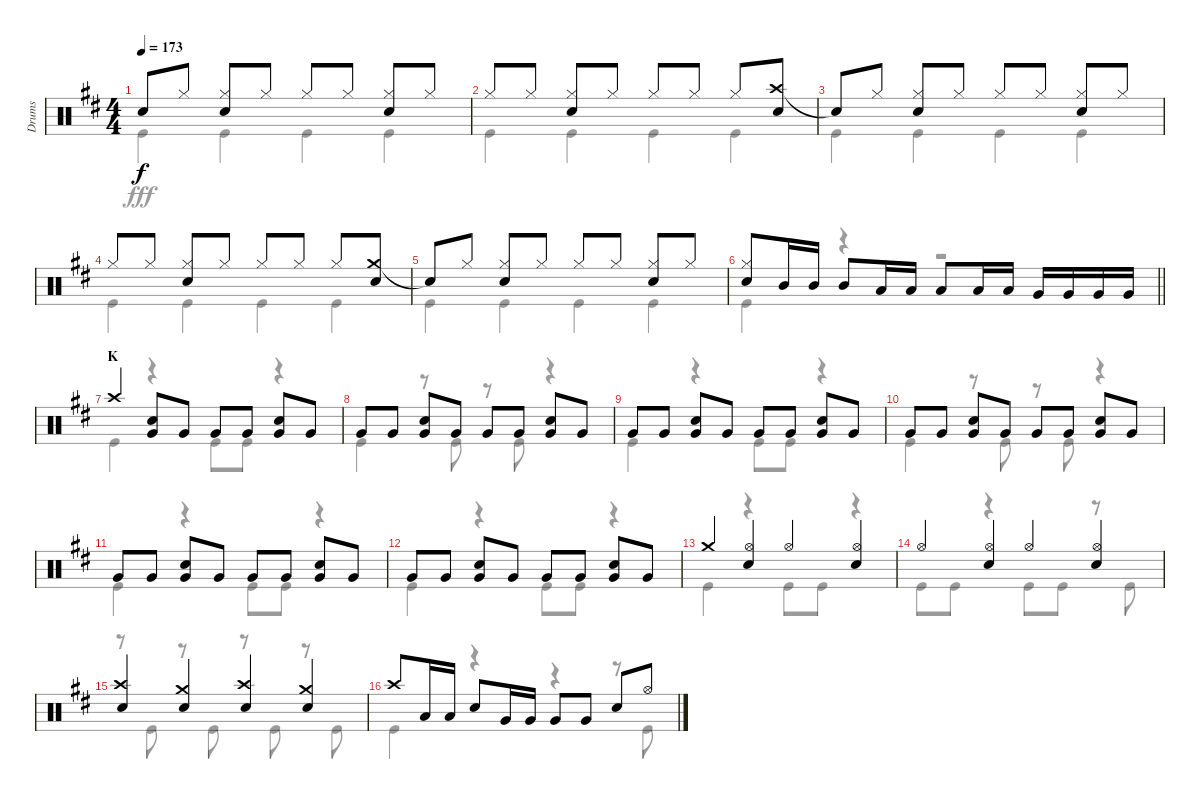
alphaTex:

\track ("Drums" "Drums") {instrument percussion}
\staff {score}
\articulation defaults
\voice
\ts (4 4)
\tempo 173
\clef neutral
\ks d "Snare (hit)"{t}.8{dy f} "Hi-Hat (closed)".8
("Hi-Hat (closed)" "Snare (hit) 2").8 "Hi-Hat (closed)".8 "Hi-Hat (closed)".8 "Hi-Hat (closed)".8 ("Hi-Hat (closed)" "Snare (hit) 2").8 "Hi-Hat (closed)".8 |
"Hi-Hat (closed)".8 "Hi-Hat (closed)".8 ("Hi-Hat (closed)" "Snare (hit) 2").8 "Hi-Hat (closed)".8 "Hi-Hat (closed)".8 "Hi-Hat (closed)".8 "Hi-Hat (closed)".8 ("Crash high (hit)" "Snare (hit) 2").8 |
"Snare (hit)"{t}.8 "Hi-Hat (closed)".8 ("Hi-Hat (closed)" "Snare (hit) 2").8 "Hi-Hat (closed)".8 "Hi-Hat (closed)".8 "Hi-Hat (closed)".8 ("Hi-Hat (closed)" "Snare (hit) 2").8 "Hi-Hat (closed)".8 |
"Hi-Hat (closed)".8 "Hi-Hat (closed)".8 ("Hi-Hat (closed)" "Snare (hit) 2").8 "Hi-Hat (closed)".8 "Hi-Hat (closed)".8 "Hi-Hat (closed)".8 "Hi-Hat (closed)".8 ("Crash medium (hit)" "Snare (hit) 2").8 |
"Snare (hit)"{t}.8 "Hi-Hat (closed)".8 ("Hi-Hat (closed)" "Snare (hit) 2").8 "Hi-Hat (closed)".8 "Hi-Hat (closed)".8 "Hi-Hat (closed)".8 ("Hi-Hat (closed)" "Snare (hit) 2").8 "Hi-Hat (closed)".8 |
\barLineRight lightlight
("Hi-Hat (closed)" "Snare (hit) 2").8 "Mid Tom (hit)".16 "Mid Tom (hit)".16 "Mid Tom (hit)".8 "Low Tom (hit)".16 "Low Tom (hit)".16 "Low Tom (hit)".8 "Low Tom (hit)".16 "Low Tom (hit)".16 "Very Low Tom (hit)".16 "Very Low Tom (hit)".16 "Very Low Tom (hit)".16 "Very Low Tom (hit)".16 |
\section ("" "K")
"Crash high (hit)".4 ("Snare (hit) 2" "Very Low Tom (hit)").8 "Very Low Tom (hit)".8 "Very Low Tom (hit)".8 "Very Low Tom (hit)".8 ("Snare (hit) 2" "Very Low Tom (hit)").8 "Very Low Tom (hit)".8 |
"Very Low Tom (hit)".8 "Very Low Tom (hit)".8 ("Snare (hit) 2" "Very Low Tom (hit)").8 "Very Low Tom (hit)".8 "Very Low Tom (hit)".8 "Very Low Tom (hit)".8 ("Snare (hit) 2" "Very Low Tom (hit)").8 "Very Low Tom (hit)".8 |
"Very Low Tom (hit)".8 "Very Low Tom (hit)".8 ("Snare (hit) 2" "Very Low Tom (hit)").8 "Very Low Tom (hit)".8 "Very Low Tom (hit)".8 "Very Low Tom (hit)".8 ("Snare (hit) 2" "Very Low Tom (hit)").8 "Very Low Tom (hit)".8 |
"Very Low Tom (hit)".8 "Very Low Tom (hit)".8 ("Snare (hit) 2" "Very Low Tom (hit)").8 "Very Low Tom (hit)".8 "Very Low Tom (hit)".8 "Very Low Tom (hit)".8 ("Snare (hit) 2" "Very Low Tom (hit)").8 "Very Low Tom (hit)".8 |
"Very Low Tom (hit)".8 "Very Low Tom (hit)".8 ("Snare (hit) 2" "Very Low Tom (hit)").8 "Very Low Tom (hit)".8 "Very Low Tom (hit)".8 "Very Low Tom (hit)".8 ("Snare (hit) 2" "Very Low Tom (hit)").8 "Very Low Tom (hit)".8 |
"Very Low Tom (hit)".8 "Very Low Tom (hit)".8 ("Snare (hit) 2" "Very Low Tom (hit)").8 "Very Low Tom (hit)".8 "Very Low Tom (hit)".8 "Very Low Tom (hit)".8 ("Snare (hit) 2" "Very Low Tom (hit)").8 "Very Low Tom (hit)".8 |
"Crash medium (hit)".4 ("Hi-Hat (open)" "Snare (hit) 2").4 "Hi-Hat (open)".4 ("Hi-Hat (open)" "Snare (hit) 2").4 |
"Hi-Hat (open)".4 ("Hi-Hat (open)" "Snare (hit) 2").4 "Hi-Hat (open)".4 ("Hi-Hat (open)" "Snare (hit) 2").4 |
("Crash high (hit)" "Snare (hit) 2").4 ("Crash medium (hit)" "Snare (hit) 2").4 ("Crash high (hit)" "Snare (hit) 2").4 ("Crash medium (hit)" "Snare (hit) 2").4 |
"Crash high (hit)".8 "Low Tom (hit)".16 "Low Tom (hit)".16 "Snare (hit)".8 "Very Low Tom (hit)".16 "Very Low Tom (hit)".16 "Very Low Tom (hit)".8 "Very Low Tom (hit)".8 "Snare (hit) 2".8 "Hi-Hat (open)".8
\voice
\clef neutral
\ottava regular
\simile none
\ks d "Kick (hit)".4{dy fff} "Kick (hit)".4 "Kick (hit)".4 "Kick (hit)".4
|
"Kick (hit)".4 "Kick (hit)".4 "Kick (hit)".4 "Kick (hit)".4 |
"Kick (hit)".4 "Kick (hit)".4 "Kick (hit)".4 "Kick (hit)".4 |
"Kick (hit)".4 "Kick (hit)".4 "Kick (hit)".4 "Kick (hit)".4 |
"Kick (hit)".4 "Kick (hit)".4 "Kick (hit)".4 "Kick (hit)".4 |
\barLineRight lightlight "Kick (hit)".4
r.4 r.2 |
"Kick (hit)".4 r.4 "Kick (hit)".8 "Kick (hit)".8 r.4 |
"Kick (hit)".4 r.8 "Kick (hit)".8 r.8 "Kick (hit)".8 r.4 |
"Kick (hit)".4 r.4 "Kick (hit)".8 "Kick (hit)".8 r.4 |
"Kick (hit)".4 r.8 "Kick (hit)".8 r.8 "Kick (hit)".8 r.4 |
"Kick (hit)".4 r.4 "Kick (hit)".8 "Kick (hit)".8 r.4 |
"Kick (hit)".4 r.4 "Kick (hit)".8 "Kick (hit)".8 r.4 |
"Kick (hit)".4 r.4 "Kick (hit)".8 "Kick (hit)".8 r.4 |
"Kick (hit)".8 "Kick (hit)".8 r.4 "Kick (hit)".8 "Kick (hit)".8 r.8 "Kick (hit)".8 |
r.8 "Kick (hit)".8 r.8 "Kick (hit)".8 r.8 "Kick (hit)".8 r.8 "Kick (hit)".8 |
"Kick (hit)".4 r.4 r.4 r.8 "Kick (hit)".8
